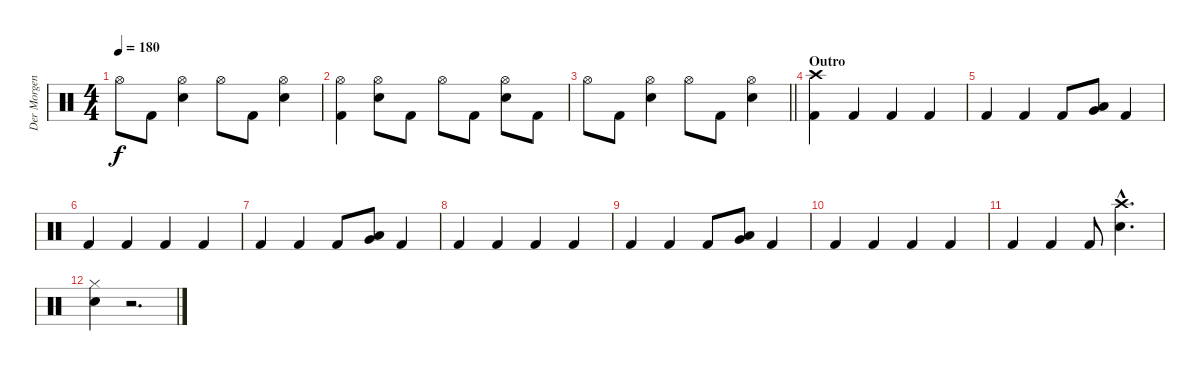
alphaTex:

\track ("Der Morgenstern" "Der Morgen") {instrument percussion}
\staff {score}
\articulation defaults
\ts (4 4)
\tempo 180
\clef neutral
\ks c "Hi-Hat (open)".8{dy f} "Kick (hit) 2".8
("Hi-Hat (open)" "Electric Snare (hit)").4 "Hi-Hat (open)".8 "Kick (hit) 2".8 ("Hi-Hat (open)" "Electric Snare (hit)").4 |
("Hi-Hat (open)" "Kick (hit) 2").4 ("Hi-Hat (open)" "Electric Snare (hit)").8 "Kick (hit) 2".8 "Hi-Hat (open)".8 "Kick (hit) 2".8 ("Hi-Hat (open)" "Electric Snare (hit)").8 "Kick (hit) 2".8 |
\barLineRight lightlight "Hi-Hat (open)".8 "Kick (hit) 2".8
("Hi-Hat (open)" "Electric Snare (hit)").4 "Hi-Hat (open)".8 "Kick (hit) 2".8 ("Hi-Hat (open)" "Electric Snare (hit)").4 |
\section ("" "Outro")
("Crash high (hit)" "Kick (hit) 2").4 "Kick (hit) 2".4 "Kick (hit) 2".4 "Kick (hit) 2".4 |
"Kick (hit) 2".4 "Kick (hit) 2".4 "Kick (hit) 2".8 ("Very Low Tom (hit)" "Low Floor Tom (hit)").8 "Kick (hit) 2".4 |
"Kick (hit) 2".4 "Kick (hit) 2".4 "Kick (hit) 2".4 "Kick (hit) 2".4 |
"Kick (hit) 2".4 "Kick (hit) 2".4 "Kick (hit) 2".8 ("Very Low Tom (hit)" "Low Floor Tom (hit)").8 "Kick (hit) 2".4 |
"Kick (hit) 2".4 "Kick (hit) 2".4 "Kick (hit) 2".4 "Kick (hit) 2".4 |
"Kick (hit) 2".4 "Kick (hit) 2".4 "Kick (hit) 2".8 ("Very Low Tom (hit)" "Low Floor Tom (hit)").8 "Kick (hit) 2".4 |
"Kick (hit) 2".4 "Kick (hit) 2".4 "Kick (hit) 2".4 "Kick (hit) 2".4 |
"Kick (hit) 2".4 "Kick (hit) 2".4 "Kick (hit) 2".8 ("Crash high (hit)"{hac} "Electric Snare (hit)"{hac}).4{d} |
("Hi-Hat (closed)" "Electric Snare (hit)").4 r.2{d}
